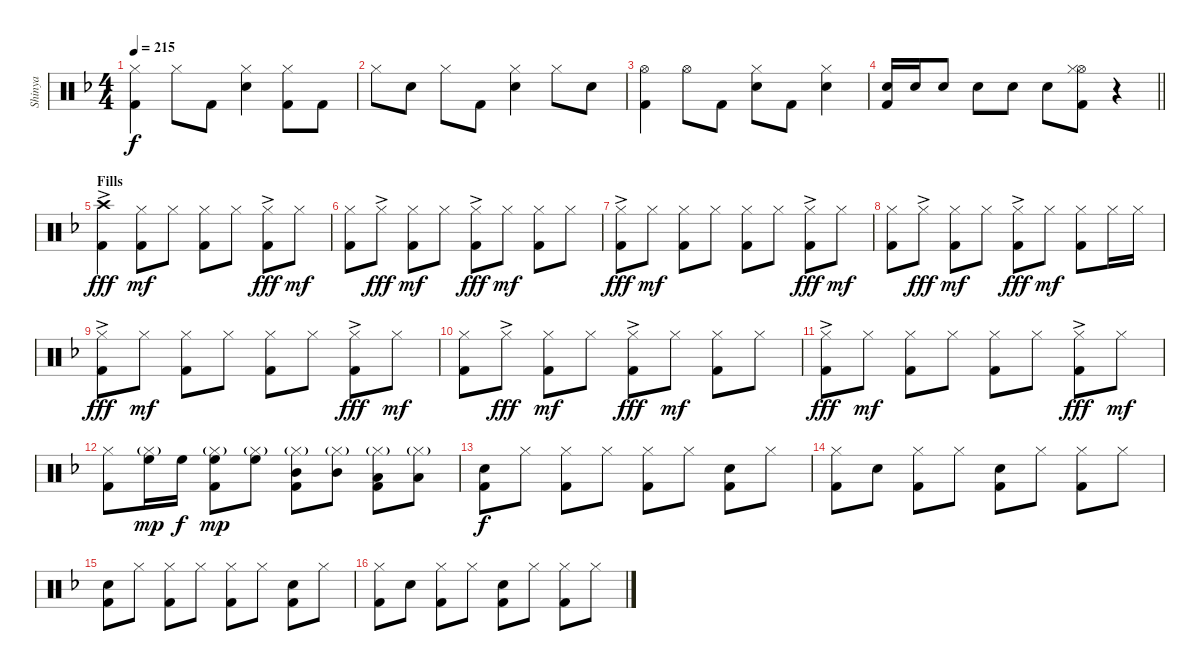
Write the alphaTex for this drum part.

\track ("Shinya" "Shinya") {instrument percussion}
\staff {score}
\articulation defaults
\ts (4 4)
\tempo 215
\clef neutral
\ks f
("Hi-Hat (closed)" "Kick (hit) 2").4{dy f} "Hi-Hat (closed)".8 "Kick (hit) 2".8 ("Hi-Hat (closed)" "Snare (hit) 2").4 ("Hi-Hat (closed)" "Kick (hit) 2").8 "Kick (hit) 2".8 |
"Hi-Hat (closed)".8 "Snare (hit) 2".8 "Hi-Hat (closed)".8 "Kick (hit) 2".8 ("Hi-Hat (closed)" "Snare (hit) 2").4 "Hi-Hat (closed)".8 "Snare (hit) 2".8 |
("Hi-Hat (open)" "Kick (hit) 2").4 "Hi-Hat (open)".8 "Kick (hit) 2".8 ("Hi-Hat (closed)" "Snare (hit) 2").8 "Kick (hit) 2".8 ("Hi-Hat (closed)" "Snare (hit) 2").4 |
\barLineRight lightlight
("Snare (hit) 2" "Kick (hit) 2").16 "Snare (hit) 2".16 "Snare (hit) 2".8 "Snare (hit) 2".8 "Snare (hit) 2".8 "Snare (hit) 2".8 ("Hi-Hat (open)" "Hi-Hat (closed)" "Kick (hit) 2").8 r.4 |
\section ("" "Fills")
("Crash high (hit)"{ac} "Kick (hit) 2").4{dy fff} ("Hi-Hat (closed)" "Kick (hit) 2").8{dy mf} "Hi-Hat (closed)".8 ("Hi-Hat (closed)" "Kick (hit) 2").8 "Hi-Hat (closed)".8 ("Hi-Hat (closed)"{ac} "Kick (hit) 2").8{dy fff} "Hi-Hat (closed)".8{dy mf} |
("Hi-Hat (closed)" "Kick (hit) 2").8 "Hi-Hat (closed)"{ac}.8{dy fff} ("Hi-Hat (closed)" "Kick (hit) 2").8{dy mf} "Hi-Hat (closed)".8 ("Hi-Hat (closed)"{ac} "Kick (hit) 2").8{dy fff} "Hi-Hat (closed)".8{dy mf} ("Hi-Hat (closed)" "Kick (hit) 2").8 "Hi-Hat (closed)".8 |
("Hi-Hat (closed)"{ac} "Kick (hit) 2").8{dy fff} "Hi-Hat (closed)".8{dy mf} ("Hi-Hat (closed)" "Kick (hit) 2").8 "Hi-Hat (closed)".8 ("Hi-Hat (closed)" "Kick (hit) 2").8 "Hi-Hat (closed)".8 ("Hi-Hat (closed)"{ac} "Kick (hit) 2").8{dy fff} "Hi-Hat (closed)".8{dy mf} |
("Hi-Hat (closed)" "Kick (hit) 2").8 "Hi-Hat (closed)"{ac}.8{dy fff} ("Hi-Hat (closed)" "Kick (hit) 2").8{dy mf} "Hi-Hat (closed)".8 ("Hi-Hat (closed)"{ac} "Kick (hit) 2").8{dy fff} "Hi-Hat (closed)".8{dy mf} ("Hi-Hat (closed)" "Kick (hit) 2").8 "Hi-Hat (closed)".16 "Hi-Hat (closed)".16 |
("Hi-Hat (closed)"{ac} "Kick (hit) 2").8{dy fff} "Hi-Hat (closed)".8{dy mf} ("Hi-Hat (closed)" "Kick (hit) 2").8 "Hi-Hat (closed)".8 ("Hi-Hat (closed)" "Kick (hit) 2").8 "Hi-Hat (closed)".8 ("Hi-Hat (closed)"{ac} "Kick (hit) 2").8{dy fff} "Hi-Hat (closed)".8{dy mf} |
("Hi-Hat (closed)" "Kick (hit) 2").8 "Hi-Hat (closed)"{ac}.8{dy fff} ("Hi-Hat (closed)" "Kick (hit) 2").8{dy mf} "Hi-Hat (closed)".8 ("Hi-Hat (closed)"{ac} "Kick (hit) 2").8{dy fff} "Hi-Hat (closed)".8{dy mf} ("Hi-Hat (closed)" "Kick (hit) 2").8 "Hi-Hat (closed)".8 |
("Hi-Hat (closed)"{ac} "Kick (hit) 2").8{dy fff} "Hi-Hat (closed)".8{dy mf} ("Hi-Hat (closed)" "Kick (hit) 2").8 "Hi-Hat (closed)".8 ("Hi-Hat (closed)" "Kick (hit) 2").8 "Hi-Hat (closed)".8 ("Hi-Hat (closed)"{ac} "Kick (hit) 2").8{dy fff} "Hi-Hat (closed)".8{dy mf} |
("Hi-Hat (closed)" "Kick (hit) 2").8 ("Hi-Hat (closed)"{g} "High Floor Tom (hit)").16{dy mp} "High Floor Tom (hit)".16{dy f} ("Hi-Hat (closed)"{g} "High Floor Tom (hit)" "Kick (hit) 2").8{dy mp} ("Hi-Hat (closed)"{g} "High Floor Tom (hit)").8 ("Hi-Hat (closed)"{g} "Mid Tom (hit)" "Kick (hit) 2").8 ("Hi-Hat (closed)"{g} "Mid Tom (hit)").8 ("Hi-Hat (closed)"{g} "Low Tom (hit)" "Kick (hit) 2").8 ("Hi-Hat (closed)"{g} "Low Tom (hit)").8 |
("Snare (hit) 2" "Kick (hit) 2").8{dy f} "Hi-Hat (closed)".8 ("Hi-Hat (closed)" "Kick (hit) 2").8 "Hi-Hat (closed)".8 ("Hi-Hat (closed)" "Kick (hit) 2").8 "Hi-Hat (closed)".8 ("Snare (hit) 2" "Kick (hit) 2").8 "Hi-Hat (closed)".8 |
("Hi-Hat (closed)" "Kick (hit) 2").8 "Snare (hit) 2".8 ("Hi-Hat (closed)" "Kick (hit) 2").8 "Hi-Hat (closed)".8 ("Snare (hit) 2" "Kick (hit) 2").8 "Hi-Hat (closed)".8 ("Hi-Hat (closed)" "Kick (hit) 2").8 "Hi-Hat (closed)".8 |
("Snare (hit) 2" "Kick (hit) 2").8 "Hi-Hat (closed)".8 ("Hi-Hat (closed)" "Kick (hit) 2").8 "Hi-Hat (closed)".8 ("Hi-Hat (closed)" "Kick (hit) 2").8 "Hi-Hat (closed)".8 ("Snare (hit) 2" "Kick (hit) 2").8 "Hi-Hat (closed)".8 |
("Hi-Hat (closed)" "Kick (hit) 2").8 "Snare (hit) 2".8 ("Hi-Hat (closed)" "Kick (hit) 2").8 "Hi-Hat (closed)".8 ("Snare (hit) 2" "Kick (hit) 2").8 "Hi-Hat (closed)".8 ("Hi-Hat (closed)" "Kick (hit) 2").8 "Hi-Hat (closed)".8
